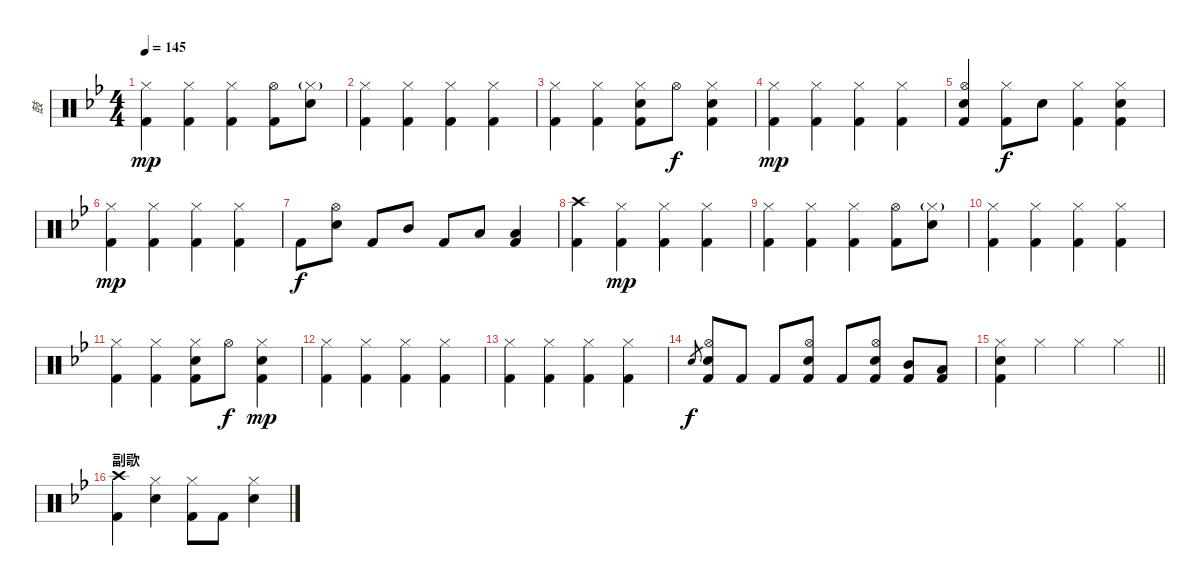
\track ("鼓" "鼓") {instrument percussion}
\staff {score}
\articulation defaults
\ts (4 4)
\tempo 145
\clef neutral
\ks bb
("Hi-Hat (closed)" "Kick (hit) 2").4{dy mp} ("Hi-Hat (closed)" "Kick (hit) 2").4 ("Hi-Hat (closed)" "Kick (hit) 2").4 ("Hi-Hat (open)" "Kick (hit) 2").8 ("Hi-Hat (closed)"{g} "Snare (hit) 2").8 |
("Hi-Hat (closed)" "Kick (hit) 2").4 ("Hi-Hat (closed)" "Kick (hit) 2").4 ("Hi-Hat (closed)" "Kick (hit) 2").4 ("Hi-Hat (closed)" "Kick (hit) 2").4 |
("Hi-Hat (closed)" "Kick (hit) 2").4 ("Hi-Hat (closed)" "Kick (hit) 2").4 ("Hi-Hat (closed)" "Snare (hit) 2" "Kick (hit) 2").8 "Hi-Hat (open)".8{dy f} ("Hi-Hat (closed)" "Snare (hit) 2" "Kick (hit) 2").4 |
("Hi-Hat (closed)" "Kick (hit) 2").4{dy mp} ("Hi-Hat (closed)" "Kick (hit) 2").4 ("Hi-Hat (closed)" "Kick (hit) 2").4 ("Hi-Hat (closed)" "Kick (hit) 2").4 |
("Hi-Hat (open)" "Snare (hit) 2" "Kick (hit) 2").4 ("Hi-Hat (closed)" "Kick (hit) 2").8{dy f} "Snare (hit) 2".8 ("Hi-Hat (closed)" "Kick (hit) 2").4 ("Hi-Hat (closed)" "Snare (hit) 2" "Kick (hit) 2").4 |
("Hi-Hat (closed)" "Kick (hit) 2").4{dy mp} ("Hi-Hat (closed)" "Kick (hit) 2").4 ("Hi-Hat (closed)" "Kick (hit) 2").4 ("Hi-Hat (closed)" "Kick (hit) 2").4 |
"Kick (hit) 2".8{dy f} ("Hi-Hat (open)" "Snare (hit) 2").8 "Kick (hit) 2".8 "Mid Tom (hit)".8 "Kick (hit) 2".8 "Low Tom (hit)".8 ("Low Tom (hit)" "Kick (hit) 2").4 |
("Crash high (hit)" "Kick (hit) 2").4 ("Hi-Hat (closed)" "Kick (hit) 2").4{dy mp} ("Hi-Hat (closed)" "Kick (hit) 2").4 ("Hi-Hat (closed)" "Kick (hit) 2").4 |
("Hi-Hat (closed)" "Kick (hit) 2").4 ("Hi-Hat (closed)" "Kick (hit) 2").4 ("Hi-Hat (closed)" "Kick (hit) 2").4 ("Hi-Hat (open)" "Kick (hit) 2").8 ("Hi-Hat (closed)"{g} "Snare (hit) 2").8 |
("Hi-Hat (closed)" "Kick (hit) 2").4 ("Hi-Hat (closed)" "Kick (hit) 2").4 ("Hi-Hat (closed)" "Kick (hit) 2").4 ("Hi-Hat (closed)" "Kick (hit) 2").4 |
("Hi-Hat (closed)" "Kick (hit) 2").4 ("Hi-Hat (closed)" "Kick (hit) 2").4 ("Hi-Hat (closed)" "Snare (hit) 2" "Kick (hit) 2").8 "Hi-Hat (open)".8{dy f} ("Hi-Hat (closed)" "Snare (hit) 2" "Kick (hit) 2").4{dy mp} |
("Hi-Hat (closed)" "Kick (hit) 2").4 ("Hi-Hat (closed)" "Kick (hit) 2").4 ("Hi-Hat (closed)" "Kick (hit) 2").4 ("Hi-Hat (closed)" "Kick (hit) 2").4 |
("Hi-Hat (closed)" "Kick (hit) 2").4 ("Hi-Hat (closed)" "Kick (hit) 2").4 ("Hi-Hat (closed)" "Kick (hit) 2").4 ("Hi-Hat (closed)" "Kick (hit) 2").4 |
"Snare (hit) 2".8{gr dy f} ("Hi-Hat (open)" "Snare (hit) 2" "Kick (hit) 2").8 "Kick (hit) 2".8 "Kick (hit) 2".8 ("Hi-Hat (open)" "Snare (hit) 2" "Kick (hit) 2").8 "Kick (hit) 2".8 ("Hi-Hat (open)" "Snare (hit) 2" "Kick (hit) 2").8 ("Mid Tom (hit)" "Kick (hit) 2").8 ("Low Tom (hit)" "Kick (hit) 2").8 |
\barLineRight lightlight
("Hi-Hat (closed)" "Snare (hit) 2" "Kick (hit) 2").4 "Hi-Hat (closed)".4 "Hi-Hat (closed)".4 "Hi-Hat (closed)".4 |
\section ("" "副歌")
("Crash high (hit)" "Kick (hit) 2").4 ("Hi-Hat (closed)" "Snare (hit) 2").4 ("Hi-Hat (closed)" "Kick (hit) 2").8 "Kick (hit) 2".8 ("Hi-Hat (closed)" "Snare (hit) 2").4
